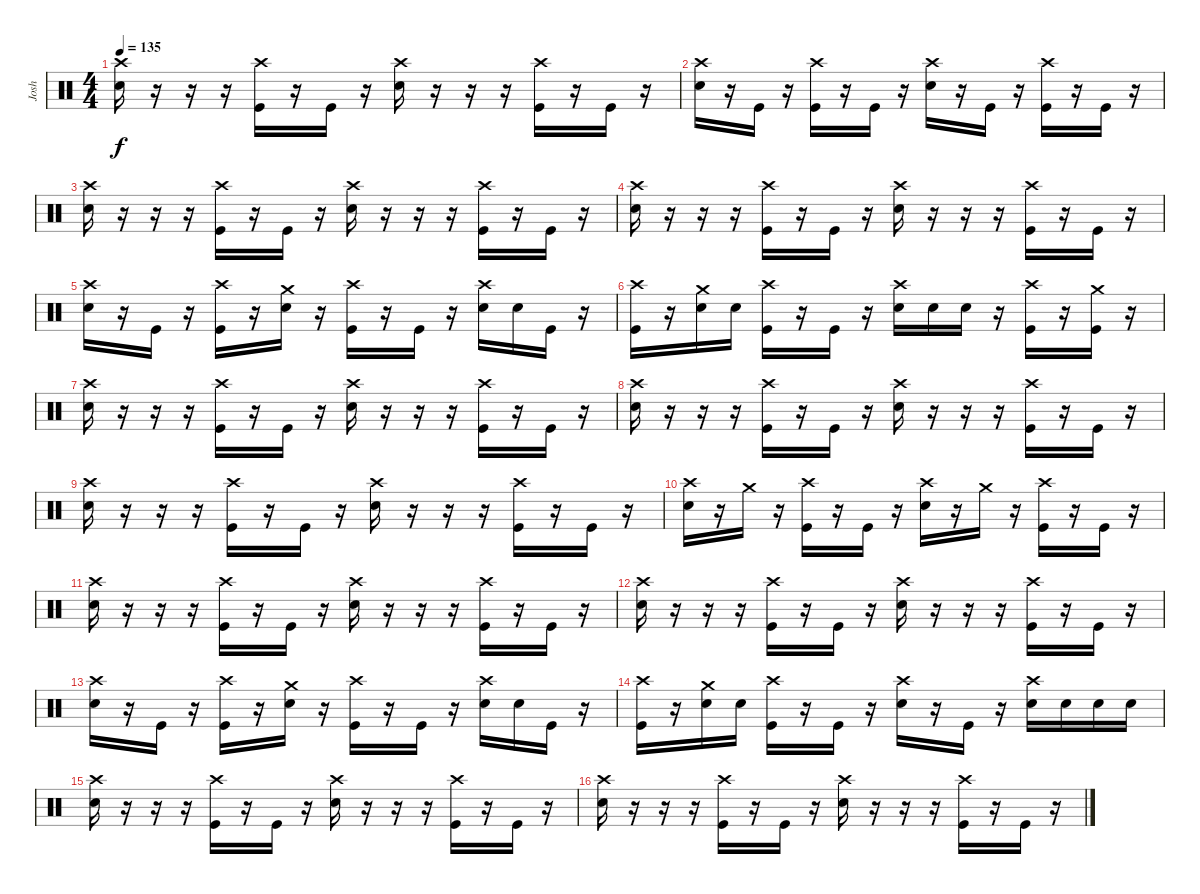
\track ("Josh" "Josh") {instrument percussion}
\staff {score}
\articulation defaults
\ts (4 4)
\tempo 135
\clef neutral
\ks c
("Crash high (hit)" "Snare (hit) 2").16{dy f} r.16 r.16 r.16 ("Crash high (hit)" "Kick (hit)").16 r.16 "Kick (hit)".16 r.16 ("Crash high (hit)" "Snare (hit) 2").16 r.16 r.16 r.16 ("Crash high (hit)" "Kick (hit)").16 r.16 "Kick (hit)".16 r.16 |
("Crash high (hit)" "Snare (hit) 2").16 r.16 "Kick (hit)".16 r.16 ("Crash high (hit)" "Kick (hit)").16 r.16 "Kick (hit)".16 r.16 ("Crash high (hit)" "Snare (hit) 2").16 r.16 "Kick (hit)".16 r.16 ("Crash high (hit)" "Kick (hit)").16 r.16 "Kick (hit)".16 r.16 |
("Crash high (hit)" "Snare (hit) 2").16 r.16 r.16 r.16 ("Crash high (hit)" "Kick (hit)").16 r.16 "Kick (hit)".16 r.16 ("Crash high (hit)" "Snare (hit) 2").16 r.16 r.16 r.16 ("Crash high (hit)" "Kick (hit)").16 r.16 "Kick (hit)".16 r.16 |
("Crash high (hit)" "Snare (hit) 2").16 r.16 r.16 r.16 ("Crash high (hit)" "Kick (hit)").16 r.16 "Kick (hit)".16 r.16 ("Crash high (hit)" "Snare (hit) 2").16 r.16 r.16 r.16 ("Crash high (hit)" "Kick (hit)").16 r.16 "Kick (hit)".16 r.16 |
("Crash high (hit)" "Snare (hit) 2").16 r.16 "Kick (hit)".16 r.16 ("Crash high (hit)" "Kick (hit)").16 r.16 ("Crash medium (hit)" "Snare (hit) 2").16 r.16 ("Crash high (hit)" "Kick (hit)").16 r.16 "Kick (hit)".16 r.16 ("Crash high (hit)" "Snare (hit) 2").16 "Snare (hit) 2".16 "Kick (hit)".16 r.16 |
("Crash high (hit)" "Kick (hit)").16 r.16 ("Crash medium (hit)" "Snare (hit) 2").16 "Snare (hit) 2".16 ("Crash high (hit)" "Kick (hit)").16 r.16 "Kick (hit)".16 r.16 ("Crash high (hit)" "Snare (hit) 2").16 "Snare (hit) 2".16 "Snare (hit) 2".16 r.16 ("Crash high (hit)" "Kick (hit)").16 r.16 ("Crash medium (hit)" "Kick (hit)").16 r.16 |
("Crash high (hit)" "Snare (hit) 2").16 r.16 r.16 r.16 ("Crash high (hit)" "Kick (hit)").16 r.16 "Kick (hit)".16 r.16 ("Crash high (hit)" "Snare (hit) 2").16 r.16 r.16 r.16 ("Crash high (hit)" "Kick (hit)").16 r.16 "Kick (hit)".16 r.16 |
("Crash high (hit)" "Snare (hit) 2").16 r.16 r.16 r.16 ("Crash high (hit)" "Kick (hit)").16 r.16 "Kick (hit)".16 r.16 ("Crash high (hit)" "Snare (hit) 2").16 r.16 r.16 r.16 ("Crash high (hit)" "Kick (hit)").16 r.16 "Kick (hit)".16 r.16 |
("Crash high (hit)" "Snare (hit) 2").16 r.16 r.16 r.16 ("Crash high (hit)" "Kick (hit)").16 r.16 "Kick (hit)".16 r.16 ("Crash high (hit)" "Snare (hit) 2").16 r.16 r.16 r.16 ("Crash high (hit)" "Kick (hit)").16 r.16 "Kick (hit)".16 r.16 |
("Crash high (hit)" "Snare (hit) 2").16 r.16 "Crash medium (hit)".16 r.16 ("Crash high (hit)" "Kick (hit)").16 r.16 "Kick (hit)".16 r.16 ("Crash high (hit)" "Snare (hit) 2").16 r.16 "Crash medium (hit)".16 r.16 ("Crash high (hit)" "Kick (hit)").16 r.16 "Kick (hit)".16 r.16 |
("Crash high (hit)" "Snare (hit) 2").16 r.16 r.16 r.16 ("Crash high (hit)" "Kick (hit)").16 r.16 "Kick (hit)".16 r.16 ("Crash high (hit)" "Snare (hit) 2").16 r.16 r.16 r.16 ("Crash high (hit)" "Kick (hit)").16 r.16 "Kick (hit)".16 r.16 |
("Crash high (hit)" "Snare (hit) 2").16 r.16 r.16 r.16 ("Crash high (hit)" "Kick (hit)").16 r.16 "Kick (hit)".16 r.16 ("Crash high (hit)" "Snare (hit) 2").16 r.16 r.16 r.16 ("Crash high (hit)" "Kick (hit)").16 r.16 "Kick (hit)".16 r.16 |
("Crash high (hit)" "Snare (hit) 2").16 r.16 "Kick (hit)".16 r.16 ("Crash high (hit)" "Kick (hit)").16 r.16 ("Crash medium (hit)" "Snare (hit) 2").16 r.16 ("Crash high (hit)" "Kick (hit)").16 r.16 "Kick (hit)".16 r.16 ("Crash high (hit)" "Snare (hit) 2").16 "Snare (hit) 2".16 "Kick (hit)".16 r.16 |
("Crash high (hit)" "Kick (hit)").16 r.16 ("Crash medium (hit)" "Snare (hit) 2").16 "Snare (hit) 2".16 ("Crash high (hit)" "Kick (hit)").16 r.16 "Kick (hit)".16 r.16 ("Crash high (hit)" "Snare (hit) 2").16 r.16 "Kick (hit)".16 r.16 ("Crash high (hit)" "Snare (hit) 2").16 "Snare (hit) 2".16 "Snare (hit) 2".16 "Snare (hit) 2".16 |
("Crash high (hit)" "Snare (hit) 2").16 r.16 r.16 r.16 ("Crash high (hit)" "Kick (hit)").16 r.16 "Kick (hit)".16 r.16 ("Crash high (hit)" "Snare (hit) 2").16 r.16 r.16 r.16 ("Crash high (hit)" "Kick (hit)").16 r.16 "Kick (hit)".16 r.16 |
("Crash high (hit)" "Snare (hit) 2").16 r.16 r.16 r.16 ("Crash high (hit)" "Kick (hit)").16 r.16 "Kick (hit)".16 r.16 ("Crash high (hit)" "Snare (hit) 2").16 r.16 r.16 r.16 ("Crash high (hit)" "Kick (hit)").16 r.16 "Kick (hit)".16 r.16
